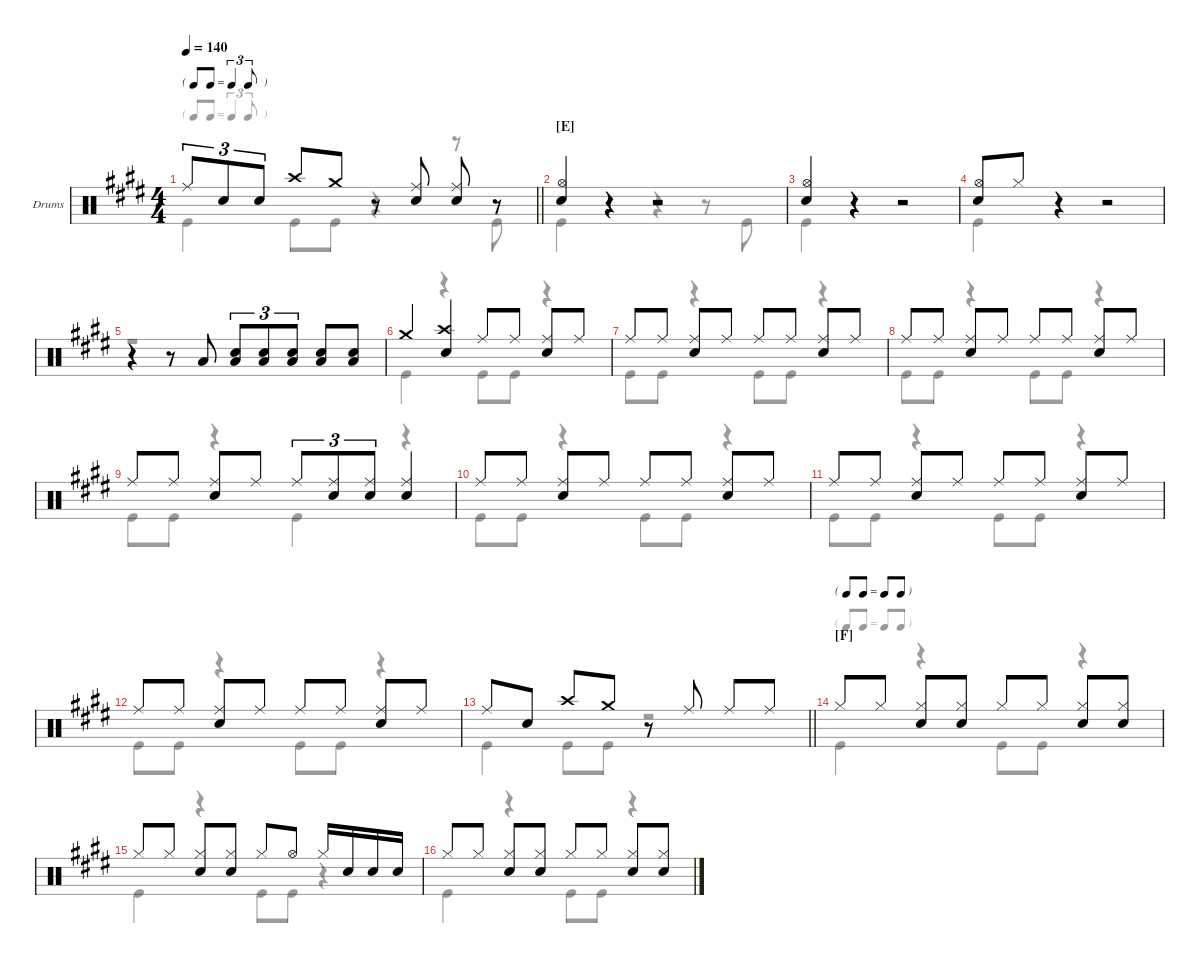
\hideDynamics
\bracketExtendMode groupsimilarinstruments
\firstSystemTrackNameOrientation horizontal
\otherSystemsTrackNameOrientation horizontal
\track ("Drumkit" "Drums") {instrument percussion}
\staff {score}
\articulation defaults
\voice
\ts (4 4)
\tf triplet8th
\scale
0.408778
\tempo 140
\accidentals auto
\clef neutral
\ottava regular
\simile none
\barLineRight lightlight
\ks e "Ride (middle)".8{tu (3 2) dy f} "Snare (hit) 2".8{tu (3 2)} "Snare (hit) 2".8{tu (3 2)} "Crash high (hit)".8 "Crash medium (hit)".8
r.8 ("Ride (middle)" "Snare (hit) 2").8 ("Ride (middle)" "Snare (hit) 2").8 r.8 |
\section ("E" "")
\scale
0.289948 ("Hi-Hat (open)" "Snare (hit) 2").4 r.4 r.2 |
\scale
0.302908 ("Hi-Hat (open)" "Snare (hit) 2").4 r.4 r.2 |
\scale
0.373805 ("Hi-Hat (open)" "Snare (hit) 2").8 "Hi-Hat (closed)".8 r.4 r.2 |
\scale
0.307582 r.4 r.8 "Low Tom (hit)".8 ("Snare (hit) 2" "Low Tom (hit)").8{tu (3 2)} ("Snare (hit) 2" "Low Tom (hit)").8{tu (3 2)} ("Snare (hit) 2" "Low Tom (hit)").8{tu (3 2)} ("Snare (hit) 2" "Low Tom (hit)").8 ("Snare (hit) 2" "Low Tom (hit)").8 |
\scale
0.319149 "Crash medium (hit)".4 ("Crash high (hit)" "Snare (hit) 2").4 "Ride (middle)".8 "Ride (middle)".8 ("Ride (middle)" "Snare (hit) 2").8 "Ride (middle)".8 |
\scale
0.398387 "Ride (middle)".8 "Ride (middle)".8 ("Ride (middle)" "Snare (hit) 2").8 "Ride (middle)".8 "Ride (middle)".8 "Ride (middle)".8 ("Ride (middle)" "Snare (hit) 2").8 "Ride (middle)".8 |
\scale
0.302766 "Ride (middle)".8 "Ride (middle)".8 ("Ride (middle)" "Snare (hit) 2").8 "Ride (middle)".8 "Ride (middle)".8 "Ride (middle)".8 ("Ride (middle)" "Snare (hit) 2").8 "Ride (middle)".8 |
\scale
0.299516 "Ride (middle)".8 "Ride (middle)".8 ("Ride (middle)" "Snare (hit) 2").8 "Ride (middle)".8 "Ride (middle)".8{tu (3 2)} ("Ride (middle)" "Snare (hit) 2").8{tu (3 2)} ("Ride (middle)" "Snare (hit) 2").8{tu (3 2)} ("Ride (middle)" "Snare (hit) 2").4 |
\scale
0.391252 "Ride (middle)".8 "Ride (middle)".8 ("Ride (middle)" "Snare (hit) 2").8 "Ride (middle)".8 "Ride (middle)".8 "Ride (middle)".8 ("Ride (middle)" "Snare (hit) 2").8 "Ride (middle)".8 |
\scale
0.302173 "Ride (middle)".8 "Ride (middle)".8 ("Ride (middle)" "Snare (hit) 2").8 "Ride (middle)".8 "Ride (middle)".8 "Ride (middle)".8 ("Ride (middle)" "Snare (hit) 2").8 "Ride (middle)".8 |
\scale
0.307694 "Ride (middle)".8 "Ride (middle)".8 ("Ride (middle)" "Snare (hit) 2").8 "Ride (middle)".8 "Ride (middle)".8 "Ride (middle)".8 ("Ride (middle)" "Snare (hit) 2").8 "Ride (middle)".8 |
\scale
0.391641
\barLineRight lightlight "Ride (middle)".8 "Snare (hit) 2".8 "Crash high (hit)".8 "Crash medium (hit)".8
r.8 "Ride (middle)".8 "Ride (middle)".8 "Ride (middle)".8 |
\tf none
\section ("F" "")
\scale
0.305092 "Hi-Hat (closed)".8 "Hi-Hat (closed)".8 ("Hi-Hat (closed)" "Snare (hit) 2").8 ("Hi-Hat (closed)" "Snare (hit) 2").8 "Hi-Hat (closed)".8 "Hi-Hat (closed)".8 ("Hi-Hat (closed)" "Snare (hit) 2").8 ("Hi-Hat (closed)" "Snare (hit) 2").8 |
\scale
0.305053 "Hi-Hat (closed)".8 "Hi-Hat (closed)".8 ("Hi-Hat (closed)" "Snare (hit) 2").8 ("Hi-Hat (closed)" "Snare (hit) 2").8 "Hi-Hat (closed)".8 "Hi-Hat (open)".8{beam split} "Hi-Hat (closed)".16 "Snare (hit) 2".16 "Snare (hit) 2".16 "Snare (hit) 2".16 |
\scale
0.393126 "Hi-Hat (closed)".8 "Hi-Hat (closed)".8 ("Hi-Hat (closed)" "Snare (hit) 2").8 ("Hi-Hat (closed)" "Snare (hit) 2").8 "Hi-Hat (closed)".8 "Hi-Hat (closed)".8 ("Hi-Hat (closed)" "Snare (hit) 2").8 ("Hi-Hat (closed)" "Snare (hit) 2").8
\voice
\clef neutral
\ottava regular
\simile none
\barLineRight lightlight
\ks e "Kick (hit)".4{dy mf} "Kick (hit)".8 "Kick (hit)".8
r.4 r.8 "Kick (hit)".8 |
"Kick (hit)".4 r.4 r.4 r.8 "Kick (hit)".8 |
"Kick (hit)".4 r.4 r.2 |
"Kick (hit)".4 r.4 r.2 |
r.1 |
"Kick (hit)".4 r.4 "Kick (hit)".8 "Kick (hit)".8 r.4 |
"Kick (hit)".8 "Kick (hit)".8 r.4 "Kick (hit)".8 "Kick (hit)".8 r.4 |
"Kick (hit)".8 "Kick (hit)".8 r.4 "Kick (hit)".8 "Kick (hit)".8 r.4 |
"Kick (hit)".8 "Kick (hit)".8 r.4 "Kick (hit)".4 r.4 |
"Kick (hit)".8 "Kick (hit)".8 r.4 "Kick (hit)".8 "Kick (hit)".8 r.4 |
"Kick (hit)".8 "Kick (hit)".8 r.4 "Kick (hit)".8 "Kick (hit)".8 r.4 |
"Kick (hit)".8 "Kick (hit)".8 r.4 "Kick (hit)".8 "Kick (hit)".8 r.4 |
\barLineRight lightlight "Kick (hit)".4 "Kick (hit)".8 "Kick (hit)".8
r.2 |
"Kick (hit)".4 r.4 "Kick (hit)".8 "Kick (hit)".8 r.4 |
"Kick (hit)".4 r.4 "Kick (hit)".8 "Kick (hit)".8 r.4 |
"Kick (hit)".4 r.4 "Kick (hit)".8 "Kick (hit)".8 r.4
